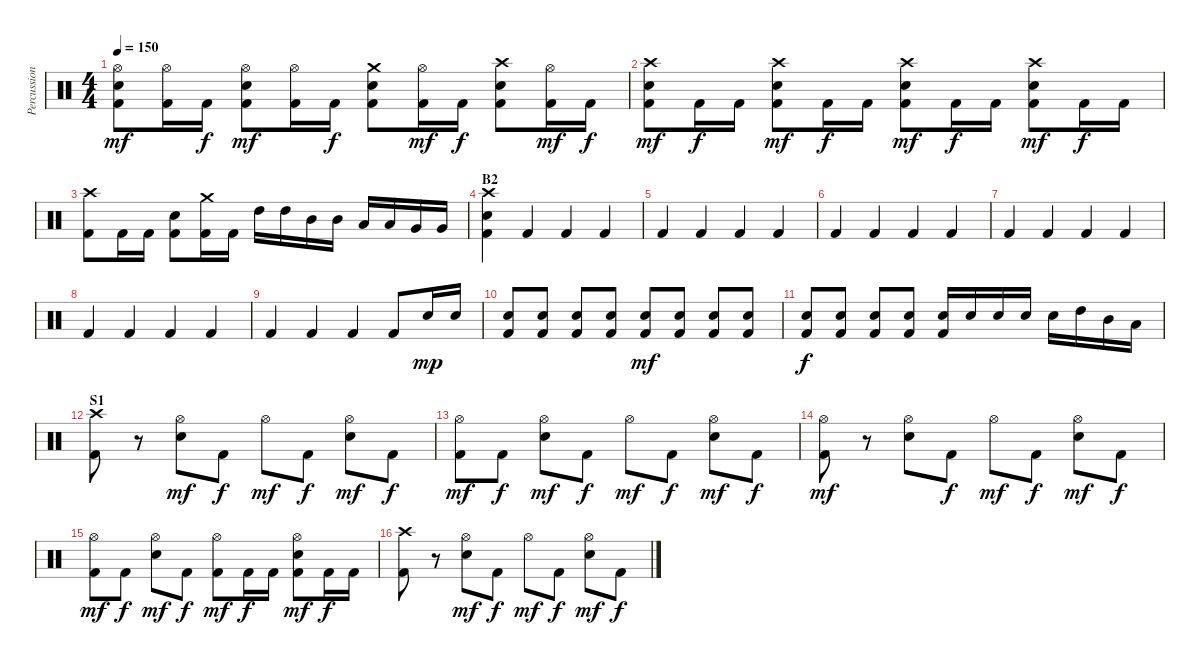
\track ("Percussion" "Percussion") {instrument percussion}
\staff {score}
\articulation defaults
\ts (4 4)
\tempo 150
\clef neutral
\ks c
("Hi-Hat (open)" "Electric Snare (hit)" "Kick (hit) 2").8{dy mf} ("Hi-Hat (open)" "Kick (hit) 2").16 "Kick (hit) 2".16{dy f} ("Hi-Hat (open)" "Electric Snare (hit)" "Kick (hit) 2").8{dy mf} ("Hi-Hat (open)" "Kick (hit) 2").16 "Kick (hit) 2".16{dy f} ("Crash medium (hit)" "Electric Snare (hit)" "Kick (hit) 2").8 ("Hi-Hat (open)" "Kick (hit) 2").16{dy mf} "Kick (hit) 2".16{dy f} ("Crash high (hit)" "Electric Snare (hit)" "Kick (hit) 2").8 ("Hi-Hat (open)" "Kick (hit) 2").16{dy mf} "Kick (hit) 2".16{dy f} |
("Crash high (hit)" "Electric Snare (hit)" "Kick (hit) 2").8{dy mf} "Kick (hit) 2".16{dy f} "Kick (hit) 2".16 ("Crash high (hit)" "Electric Snare (hit)" "Kick (hit) 2").8{dy mf} "Kick (hit) 2".16{dy f} "Kick (hit) 2".16 ("Crash high (hit)" "Electric Snare (hit)" "Kick (hit) 2").8{dy mf} "Kick (hit) 2".16{dy f} "Kick (hit) 2".16 ("Crash high (hit)" "Electric Snare (hit)" "Kick (hit) 2").8{dy mf} "Kick (hit) 2".16{dy f} "Kick (hit) 2".16 |
("Crash high (hit)" "Kick (hit) 2").8 "Kick (hit) 2".16 "Kick (hit) 2".16 ("Electric Snare (hit)" "Kick (hit) 2").8 ("Crash medium (hit)" "Kick (hit) 2").16 "Kick (hit) 2".16 "High Tom (hit)".16 "High Tom (hit)".16 "Mid Tom (hit)".16 "Mid Tom (hit)".16 "Low Tom (hit)".16 "Low Tom (hit)".16 "Very Low Tom (hit)".16 "Very Low Tom (hit)".16 |
\section ("" "B2")
("Crash high (hit)" "Electric Snare (hit)" "Kick (hit) 2").4 "Kick (hit) 2".4 "Kick (hit) 2".4 "Kick (hit) 2".4 |
"Kick (hit) 2".4 "Kick (hit) 2".4 "Kick (hit) 2".4 "Kick (hit) 2".4 |
"Kick (hit) 2".4 "Kick (hit) 2".4 "Kick (hit) 2".4 "Kick (hit) 2".4 |
"Kick (hit) 2".4 "Kick (hit) 2".4 "Kick (hit) 2".4 "Kick (hit) 2".4 |
"Kick (hit) 2".4 "Kick (hit) 2".4 "Kick (hit) 2".4 "Kick (hit) 2".4 |
"Kick (hit) 2".4 "Kick (hit) 2".4 "Kick (hit) 2".4 "Kick (hit) 2".8 "Electric Snare (hit)".16{dy mp} "Electric Snare (hit)".16 |
("Electric Snare (hit)" "Kick (hit) 2").8 ("Electric Snare (hit)" "Kick (hit) 2").8 ("Electric Snare (hit)" "Kick (hit) 2").8 ("Electric Snare (hit)" "Kick (hit) 2").8 ("Electric Snare (hit)" "Kick (hit) 2").8{dy mf} ("Electric Snare (hit)" "Kick (hit) 2").8 ("Electric Snare (hit)" "Kick (hit) 2").8 ("Electric Snare (hit)" "Kick (hit) 2").8 |
("Electric Snare (hit)" "Kick (hit) 2").8{dy f} ("Electric Snare (hit)" "Kick (hit) 2").8 ("Electric Snare (hit)" "Kick (hit) 2").8 ("Electric Snare (hit)" "Kick (hit) 2").8 ("Electric Snare (hit)" "Kick (hit) 2").16 "Electric Snare (hit)".16 "Electric Snare (hit)".16 "Electric Snare (hit)".16 "Electric Snare (hit)".16 "High Tom (hit)".16 "Mid Tom (hit)".16 "Low Tom (hit)".16 |
\section ("" "S1")
("Crash high (hit)" "Kick (hit) 2").8 r.8 ("Hi-Hat (open)" "Electric Snare (hit)").8{dy mf} "Kick (hit) 2".8{dy f} "Hi-Hat (open)".8{dy mf} "Kick (hit) 2".8{dy f} ("Hi-Hat (open)" "Electric Snare (hit)").8{dy mf} "Kick (hit) 2".8{dy f} |
("Hi-Hat (open)" "Kick (hit) 2").8{dy mf} "Kick (hit) 2".8{dy f} ("Hi-Hat (open)" "Electric Snare (hit)").8{dy mf} "Kick (hit) 2".8{dy f} "Hi-Hat (open)".8{dy mf} "Kick (hit) 2".8{dy f} ("Hi-Hat (open)" "Electric Snare (hit)").8{dy mf} "Kick (hit) 2".8{dy f} |
("Hi-Hat (open)" "Kick (hit) 2").8{dy mf} r.8 ("Hi-Hat (open)" "Electric Snare (hit)").8 "Kick (hit) 2".8{dy f} "Hi-Hat (open)".8{dy mf} "Kick (hit) 2".8{dy f} ("Hi-Hat (open)" "Electric Snare (hit)").8{dy mf} "Kick (hit) 2".8{dy f} |
("Hi-Hat (open)" "Kick (hit) 2").8{dy mf} "Kick (hit) 2".8{dy f} ("Hi-Hat (open)" "Electric Snare (hit)").8{dy mf} "Kick (hit) 2".8{dy f} ("Hi-Hat (open)" "Kick (hit) 2").8{dy mf} "Kick (hit) 2".16{dy f} "Kick (hit) 2".16 ("Hi-Hat (open)" "Electric Snare (hit)" "Kick (hit) 2").8{dy mf} "Kick (hit) 2".16{dy f} "Kick (hit) 2".16 |
("Crash high (hit)" "Kick (hit) 2").8 r.8 ("Hi-Hat (open)" "Electric Snare (hit)").8{dy mf} "Kick (hit) 2".8{dy f} "Hi-Hat (open)".8{dy mf} "Kick (hit) 2".8{dy f} ("Hi-Hat (open)" "Electric Snare (hit)").8{dy mf} "Kick (hit) 2".8{dy f}
